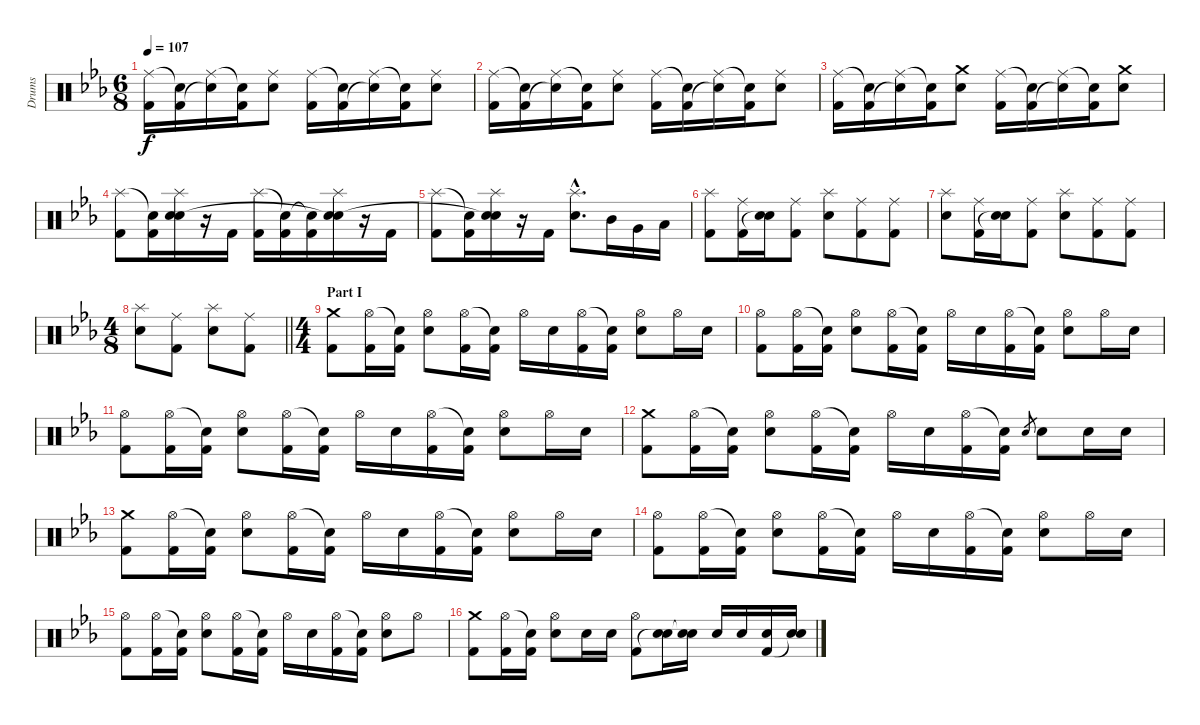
\track ("Drums" "Drums") {instrument percussion}
\staff {score}
\articulation defaults
\ts (6 8)
\tempo 107
\clef neutral
\ks eb
("Ride (middle)" "Kick (hit) 2").16{dy f} ("Snare (hit)"{t} "Kick (hit) 2").16 ("Ride (middle)" "Snare (hit)"{t}).16 ("Snare (hit)"{t} "Kick (hit) 2").16 ("Ride (middle)" "Electric Snare (hit)").8 ("Ride (middle)" "Kick (hit) 2").16 ("Snare (hit)"{t} "Kick (hit) 2").16 ("Ride (middle)" "Snare (hit)"{t}).16 ("Snare (hit)"{t} "Kick (hit) 2").16 ("Ride (middle)" "Electric Snare (hit)").8 |
("Ride (middle)" "Kick (hit) 2").16 ("Snare (hit)"{t} "Kick (hit) 2").16 ("Ride (middle)" "Snare (hit)"{t}).16 ("Snare (hit)"{t} "Kick (hit) 2").16 ("Ride (middle)" "Electric Snare (hit)").8 ("Ride (middle)" "Kick (hit) 2").16 ("Snare (hit)"{t} "Kick (hit) 2").16 ("Ride (middle)" "Snare (hit)"{t}).16 ("Snare (hit)"{t} "Kick (hit) 2").16 ("Ride (middle)" "Electric Snare (hit)").8 |
("Ride (middle)" "Kick (hit) 2").16 ("Snare (hit)"{t} "Kick (hit) 2").16 ("Ride (middle)" "Snare (hit)"{t}).16 ("Snare (hit)"{t} "Kick (hit) 2").16 ("Crash medium (hit)" "Electric Snare (hit)").8 ("Ride (middle)" "Kick (hit) 2").16 ("Snare (hit)"{t} "Kick (hit) 2").16 ("Ride (middle)" "Snare (hit)"{t}).16 ("Snare (hit)"{t} "Kick (hit) 2").16 ("Crash medium (hit)" "Electric Snare (hit)").8 |
("Splash (hit)" "Kick (hit) 2").8 ("Snare (hit)"{t} "Kick (hit) 2").16 ("Splash (hit)" "Electric Snare (hit)" "Snare (hit)").16 r.16 "Kick (hit) 2".16 ("Splash (hit)" "Kick (hit) 2").16 ("Snare (hit)"{t} "Kick (hit) 2").16 ("Snare (hit)"{t} "Kick (hit) 2").16 ("Splash (hit)" "Electric Snare (hit)" "Snare (hit)"{t}).16 r.16 "Kick (hit) 2".16 |
("Splash (hit)" "Kick (hit) 2").8 ("Snare (hit)"{t} "Kick (hit) 2").16 ("Splash (hit)" "Electric Snare (hit)" "Snare (hit)"{t}).16 r.16 "Kick (hit) 2".16 ("Splash (hit)"{hac} "Electric Snare (hit)"{hac}).8{d} "Mid Tom (hit)".16 "Very Low Tom (hit)".16 "Low Floor Tom (hit)".16 |
("Splash (hit)" "Kick (hit) 2").8 ("Ride (middle)" "Kick (hit) 2").16 ("Electric Snare (hit)" "Snare (hit)"{t}).16 ("Ride (middle)" "Kick (hit) 2").8 ("Splash (hit)" "Electric Snare (hit)").8 ("Ride (middle)" "Kick (hit) 2").8 ("Ride (middle)" "Kick (hit) 2").8 |
("Splash (hit)" "Electric Snare (hit)").8 ("Ride (middle)" "Kick (hit) 2").16 ("Electric Snare (hit)" "Snare (hit)"{t}).16 ("Ride (middle)" "Kick (hit) 2").8 ("Splash (hit)" "Electric Snare (hit)").8 ("Ride (middle)" "Kick (hit) 2").8 ("Ride (middle)" "Kick (hit) 2").8 |
\ts (4 8)
\barLineRight lightlight
("Splash (hit)" "Electric Snare (hit)").8 ("Ride (middle)" "Kick (hit) 2").8 ("Splash (hit)" "Electric Snare (hit)").8 ("Ride (middle)" "Kick (hit) 2").8 |
\ts (4 4)
\section ("" "Part I")
("Crash medium (hit)" "Kick (hit) 2").8 ("Hi-Hat (open)" "Kick (hit) 2").16 ("Snare (hit)"{t} "Kick (hit) 2").16 ("Hi-Hat (open)" "Electric Snare (hit)").8 ("Hi-Hat (open)" "Kick (hit) 2").16 ("Snare (hit)"{t} "Kick (hit) 2").16 "Hi-Hat (open)".16 "Electric Snare (hit)".16 ("Hi-Hat (open)" "Kick (hit) 2").16 ("Snare (hit)"{t} "Kick (hit) 2").16 ("Hi-Hat (open)" "Electric Snare (hit)").8 "Hi-Hat (open)".16 "Electric Snare (hit)".16 |
("Hi-Hat (open)" "Kick (hit) 2").8 ("Hi-Hat (open)" "Kick (hit) 2").16 ("Snare (hit)"{t} "Kick (hit) 2").16 ("Hi-Hat (open)" "Electric Snare (hit)").8 ("Hi-Hat (open)" "Kick (hit) 2").16 ("Snare (hit)"{t} "Kick (hit) 2").16 "Hi-Hat (open)".16 "Electric Snare (hit)".16 ("Hi-Hat (open)" "Kick (hit) 2").16 ("Snare (hit)"{t} "Kick (hit) 2").16 ("Hi-Hat (open)" "Electric Snare (hit)").8 "Hi-Hat (open)".16 "Electric Snare (hit)".16 |
("Hi-Hat (open)" "Kick (hit) 2").8 ("Hi-Hat (open)" "Kick (hit) 2").16 ("Snare (hit)"{t} "Kick (hit) 2").16 ("Hi-Hat (open)" "Electric Snare (hit)").8 ("Hi-Hat (open)" "Kick (hit) 2").16 ("Snare (hit)"{t} "Kick (hit) 2").16 "Hi-Hat (open)".16 "Electric Snare (hit)".16 ("Hi-Hat (open)" "Kick (hit) 2").16 ("Snare (hit)"{t} "Kick (hit) 2").16 ("Hi-Hat (open)" "Electric Snare (hit)").8 "Hi-Hat (open)".16 "Electric Snare (hit)".16 |
("Crash medium (hit)" "Kick (hit) 2").8 ("Hi-Hat (open)" "Kick (hit) 2").16 ("Snare (hit)"{t} "Kick (hit) 2").16 ("Hi-Hat (open)" "Electric Snare (hit)").8 ("Hi-Hat (open)" "Kick (hit) 2").16 ("Snare (hit)"{t} "Kick (hit) 2").16 "Hi-Hat (open)".16 "Electric Snare (hit)".16 ("Hi-Hat (open)" "Kick (hit) 2").16 ("Snare (hit)"{t} "Kick (hit) 2").16 "Electric Snare (hit)".8{gr} "Electric Snare (hit)".8 "Electric Snare (hit)".16 "Electric Snare (hit)".16 |
("Crash medium (hit)" "Kick (hit) 2").8 ("Hi-Hat (open)" "Kick (hit) 2").16 ("Snare (hit)"{t} "Kick (hit) 2").16 ("Hi-Hat (open)" "Electric Snare (hit)").8 ("Hi-Hat (open)" "Kick (hit) 2").16 ("Snare (hit)"{t} "Kick (hit) 2").16 "Hi-Hat (open)".16 "Electric Snare (hit)".16 ("Hi-Hat (open)" "Kick (hit) 2").16 ("Snare (hit)"{t} "Kick (hit) 2").16 ("Hi-Hat (open)" "Electric Snare (hit)").8 "Hi-Hat (open)".16 "Electric Snare (hit)".16 |
("Hi-Hat (open)" "Kick (hit) 2").8 ("Hi-Hat (open)" "Kick (hit) 2").16 ("Snare (hit)"{t} "Kick (hit) 2").16 ("Hi-Hat (open)" "Electric Snare (hit)").8 ("Hi-Hat (open)" "Kick (hit) 2").16 ("Snare (hit)"{t} "Kick (hit) 2").16 "Hi-Hat (open)".16 "Electric Snare (hit)".16 ("Hi-Hat (open)" "Kick (hit) 2").16 ("Snare (hit)"{t} "Kick (hit) 2").16 ("Hi-Hat (open)" "Electric Snare (hit)").8 "Hi-Hat (open)".16 "Electric Snare (hit)".16 |
("Hi-Hat (open)" "Kick (hit) 2").8 ("Hi-Hat (open)" "Kick (hit) 2").16 ("Snare (hit)"{t} "Kick (hit) 2").16 ("Hi-Hat (open)" "Electric Snare (hit)").8 ("Hi-Hat (open)" "Kick (hit) 2").16 ("Snare (hit)"{t} "Kick (hit) 2").16 "Hi-Hat (open)".16 "Electric Snare (hit)".16 ("Hi-Hat (open)" "Kick (hit) 2").16 ("Snare (hit)"{t} "Kick (hit) 2").16 ("Hi-Hat (open)" "Electric Snare (hit)").8 "Hi-Hat (open)".8 |
("Crash medium (hit)" "Kick (hit) 2").8 ("Hi-Hat (open)" "Kick (hit) 2").16 ("Snare (hit)"{t} "Kick (hit) 2").16 ("Hi-Hat (open)" "Electric Snare (hit)").8 "Electric Snare (hit)".16 "Electric Snare (hit)".16 ("Hi-Hat (open)" "Kick (hit) 2").8 ("Electric Snare (hit)" "Snare (hit)"{t}).16 ("Electric Snare (hit)" "Snare (hit)"{t}).16 "Electric Snare (hit)".16 "Electric Snare (hit)".16 ("Electric Snare (hit)" "Kick (hit) 2").16 ("Electric Snare (hit)" "Snare (hit)"{t}).16
